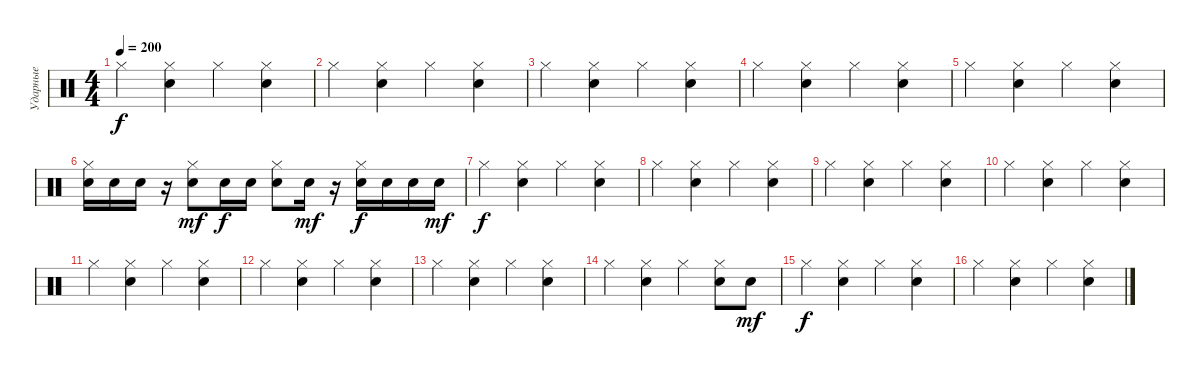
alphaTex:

\track ("Ударные" "Ударные") {instrument percussion}
\staff {score}
\articulation defaults
\ts (4 4)
\tempo 200
\clef neutral
\ks c "Hi-Hat (closed)".4{dy f}
("Snare (hit) 2" "Hi-Hat (closed)").4 "Hi-Hat (closed)".4 ("Snare (hit) 2" "Hi-Hat (closed)").4 |
"Hi-Hat (closed)".4 ("Snare (hit) 2" "Hi-Hat (closed)").4 "Hi-Hat (closed)".4 ("Snare (hit) 2" "Hi-Hat (closed)").4 |
"Hi-Hat (closed)".4 ("Snare (hit) 2" "Hi-Hat (closed)").4 "Hi-Hat (closed)".4 ("Snare (hit) 2" "Hi-Hat (closed)").4 |
"Hi-Hat (closed)".4 ("Snare (hit) 2" "Hi-Hat (closed)").4 "Hi-Hat (closed)".4 ("Snare (hit) 2" "Hi-Hat (closed)").4 |
"Hi-Hat (closed)".4 ("Snare (hit) 2" "Hi-Hat (closed)").4 "Hi-Hat (closed)".4 ("Snare (hit) 2" "Hi-Hat (closed)").4 |
("Snare (hit) 2" "Hi-Hat (closed)").16 "Snare (hit) 2".16 "Snare (hit) 2".16 r.16 ("Snare (hit) 2" "Hi-Hat (closed)").8{dy mf} "Snare (hit) 2".16{dy f} "Snare (hit) 2".16 ("Snare (hit) 2" "Hi-Hat (closed)").8 "Snare (hit) 2".16{dy mf} r.16 ("Snare (hit) 2" "Hi-Hat (closed)").16{dy f} "Snare (hit) 2".16 "Snare (hit) 2".16 "Snare (hit) 2".16{dy mf} |
"Hi-Hat (closed)".4{dy f} ("Snare (hit) 2" "Hi-Hat (closed)").4 "Hi-Hat (closed)".4 ("Snare (hit) 2" "Hi-Hat (closed)").4 |
"Hi-Hat (closed)".4 ("Snare (hit) 2" "Hi-Hat (closed)").4 "Hi-Hat (closed)".4 ("Snare (hit) 2" "Hi-Hat (closed)").4 |
"Hi-Hat (closed)".4 ("Snare (hit) 2" "Hi-Hat (closed)").4 "Hi-Hat (closed)".4 ("Snare (hit) 2" "Hi-Hat (closed)").4 |
"Hi-Hat (closed)".4 ("Snare (hit) 2" "Hi-Hat (closed)").4 "Hi-Hat (closed)".4 ("Snare (hit) 2" "Hi-Hat (closed)").4 |
"Hi-Hat (closed)".4 ("Snare (hit) 2" "Hi-Hat (closed)").4 "Hi-Hat (closed)".4 ("Snare (hit) 2" "Hi-Hat (closed)").4 |
"Hi-Hat (closed)".4 ("Snare (hit) 2" "Hi-Hat (closed)").4 "Hi-Hat (closed)".4 ("Snare (hit) 2" "Hi-Hat (closed)").4 |
"Hi-Hat (closed)".4 ("Snare (hit) 2" "Hi-Hat (closed)").4 "Hi-Hat (closed)".4 ("Snare (hit) 2" "Hi-Hat (closed)").4 |
"Hi-Hat (closed)".4 ("Snare (hit) 2" "Hi-Hat (closed)").4 "Hi-Hat (closed)".4 ("Electric Snare (hit)" "Hi-Hat (closed)").8 "Electric Snare (hit)".8{dy mf} |
"Hi-Hat (closed)".4{dy f} ("Snare (hit) 2" "Hi-Hat (closed)").4 "Hi-Hat (closed)".4 ("Snare (hit) 2" "Hi-Hat (closed)").4 |
"Hi-Hat (closed)".4 ("Snare (hit) 2" "Hi-Hat (closed)").4 "Hi-Hat (closed)".4 ("Snare (hit) 2" "Hi-Hat (closed)").4
